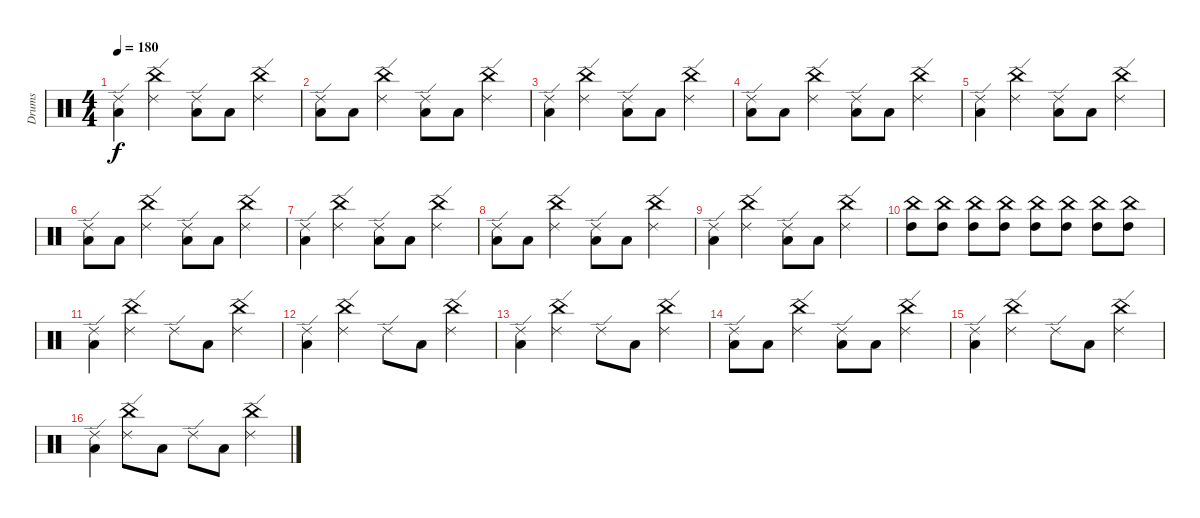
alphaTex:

\track ("Drums" "Drums") {instrument percussion}
\staff {score}
\articulation defaults
\ts (4 4)
\tempo 180
\clef neutral
\ks c
("Low Tom (hit)" "Ride (edge) 2").4{dy f} ("China (hit)" "Ride (edge) 2").4 ("Low Tom (hit)" "Ride (edge) 2").8 "Low Tom (hit)".8 ("China (hit)" "Ride (edge) 2").4 |
("Low Tom (hit)" "Ride (edge) 2").8 "Low Tom (hit)".8 ("China (hit)" "Ride (edge) 2").4 ("Low Tom (hit)" "Ride (edge) 2").8 "Low Tom (hit)".8 ("China (hit)" "Ride (edge) 2").4 |
("Low Tom (hit)" "Ride (edge) 2").4 ("China (hit)" "Ride (edge) 2").4 ("Low Tom (hit)" "Ride (edge) 2").8 "Low Tom (hit)".8 ("China (hit)" "Ride (edge) 2").4 |
("Low Tom (hit)" "Ride (edge) 2").8 "Low Tom (hit)".8 ("China (hit)" "Ride (edge) 2").4 ("Low Tom (hit)" "Ride (edge) 2").8 "Low Tom (hit)".8 ("China (hit)" "Ride (edge) 2").4 |
("Ride (edge) 2" "Low Tom (hit)").4 ("Ride (edge) 2" "China (hit)").4 ("Ride (edge) 2" "Low Tom (hit)").8 "Low Tom (hit)".8 ("Ride (edge) 2" "China (hit)").4 |
("Low Tom (hit)" "Ride (edge) 2").8 "Low Tom (hit)".8 ("Ride (edge) 2" "China (hit)").4 ("Ride (edge) 2" "Low Tom (hit)").8 "Low Tom (hit)".8 ("Ride (edge) 2" "China (hit)").4 |
("Low Tom (hit)" "Ride (edge) 2").4 ("China (hit)" "Ride (edge) 2").4 ("Low Tom (hit)" "Ride (edge) 2").8 "Low Tom (hit)".8 ("China (hit)" "Ride (edge) 2").4 |
("Low Tom (hit)" "Ride (edge) 2").8 "Low Tom (hit)".8 ("China (hit)" "Ride (edge) 2").4 ("Low Tom (hit)" "Ride (edge) 2").8 "Low Tom (hit)".8 ("China (hit)" "Ride (edge) 2").4 |
("Low Tom (hit)" "Ride (edge) 2").4 ("China (hit)" "Ride (edge) 2").4 ("Low Tom (hit)" "Ride (edge) 2").8 "Low Tom (hit)".8 ("China (hit)" "Ride (edge) 2").4 |
("China (hit)" "High Tom (hit)").8 ("High Tom (hit)" "China (hit)").8 ("China (hit)" "High Tom (hit)").8 ("High Tom (hit)" "China (hit)").8 ("China (hit)" "High Tom (hit)").8 ("High Tom (hit)" "China (hit)").8 ("China (hit)" "High Tom (hit)").8 ("High Tom (hit)" "China (hit)").8 |
("Low Tom (hit)" "Ride (edge) 2").4 ("Ride (edge) 2" "China (hit)").4 "Ride (edge) 2".8 "Low Tom (hit)".8 ("Ride (edge) 2" "China (hit)").4 |
("Low Tom (hit)" "Ride (edge) 2").4 ("Ride (edge) 2" "China (hit)").4 "Ride (edge) 2".8 "Low Tom (hit)".8 ("Ride (edge) 2" "China (hit)").4 |
("Low Tom (hit)" "Ride (edge) 2").4 ("China (hit)" "Ride (edge) 2").4 "Ride (edge) 2".8 "Low Tom (hit)".8 ("China (hit)" "Ride (edge) 2").4 |
("Low Tom (hit)" "Ride (edge) 2").8 "Low Tom (hit)".8 ("China (hit)" "Ride (edge) 2").4 ("Low Tom (hit)" "Ride (edge) 2").8 "Low Tom (hit)".8 ("China (hit)" "Ride (edge) 2").4 |
("Low Tom (hit)" "Ride (edge) 2").4 ("China (hit)" "Ride (edge) 2").4 "Ride (edge) 2".8 "Low Tom (hit)".8 ("China (hit)" "Ride (edge) 2").4 |
("Low Tom (hit)" "Ride (edge) 2").4 ("China (hit)" "Ride (edge) 2").8 "Low Tom (hit)".8 "Ride (edge) 2".8 "Low Tom (hit)".8 ("China (hit)" "Ride (edge) 2").4
